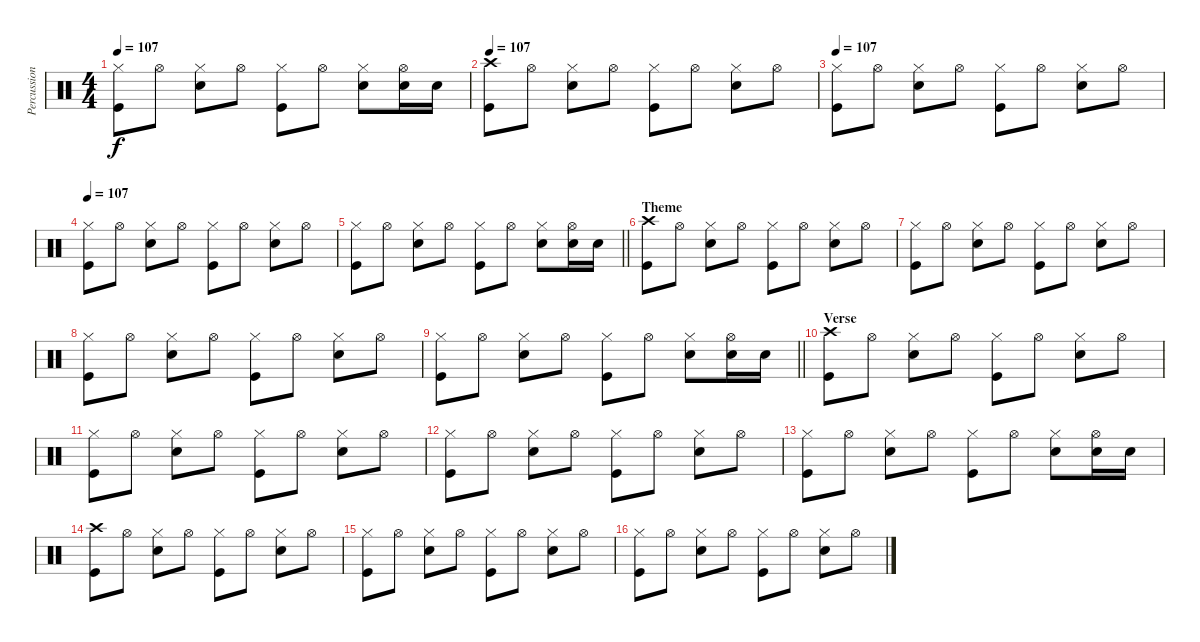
\track ("Percussion" "Percussion") {instrument percussion}
\staff {score}
\articulation defaults
\ts (4 4)
\tempo 107
\clef neutral
\ks c
("Hi-Hat (closed)" "Kick (hit)").8{dy f} "Hi-Hat (open)".8 ("Hi-Hat (closed)" "Snare (hit) 2").8 "Hi-Hat (open)".8 ("Hi-Hat (closed)" "Kick (hit)").8 "Hi-Hat (open)".8 ("Hi-Hat (closed)" "Snare (hit) 2").8 ("Hi-Hat (open)" "Snare (hit) 2").16 "Snare (hit) 2".16 |
\tempo 107
("Crash high (hit)" "Kick (hit)").8 "Hi-Hat (open)".8 ("Hi-Hat (closed)" "Snare (hit) 2").8 "Hi-Hat (open)".8 ("Hi-Hat (closed)" "Kick (hit)").8 "Hi-Hat (open)".8 ("Hi-Hat (closed)" "Snare (hit) 2").8 "Hi-Hat (open)".8 |
\tempo 107
("Hi-Hat (closed)" "Kick (hit)").8 "Hi-Hat (open)".8 ("Hi-Hat (closed)" "Snare (hit) 2").8 "Hi-Hat (open)".8 ("Hi-Hat (closed)" "Kick (hit)").8 "Hi-Hat (open)".8 ("Hi-Hat (closed)" "Snare (hit) 2").8 "Hi-Hat (open)".8 |
\tempo 107
("Hi-Hat (closed)" "Kick (hit)").8 "Hi-Hat (open)".8 ("Hi-Hat (closed)" "Snare (hit) 2").8 "Hi-Hat (open)".8 ("Hi-Hat (closed)" "Kick (hit)").8 "Hi-Hat (open)".8 ("Hi-Hat (closed)" "Snare (hit) 2").8 "Hi-Hat (open)".8 |
\barLineRight lightlight
("Hi-Hat (closed)" "Kick (hit)").8 "Hi-Hat (open)".8 ("Hi-Hat (closed)" "Snare (hit) 2").8 "Hi-Hat (open)".8 ("Hi-Hat (closed)" "Kick (hit)").8 "Hi-Hat (open)".8 ("Hi-Hat (closed)" "Snare (hit) 2").8 ("Hi-Hat (open)" "Snare (hit) 2").16 "Snare (hit) 2".16 |
\section ("" "Theme")
("Crash high (hit)" "Kick (hit)").8 "Hi-Hat (open)".8 ("Hi-Hat (closed)" "Snare (hit) 2").8 "Hi-Hat (open)".8 ("Hi-Hat (closed)" "Kick (hit)").8 "Hi-Hat (open)".8 ("Hi-Hat (closed)" "Snare (hit) 2").8 "Hi-Hat (open)".8 |
("Hi-Hat (closed)" "Kick (hit)").8 "Hi-Hat (open)".8 ("Hi-Hat (closed)" "Snare (hit) 2").8 "Hi-Hat (open)".8 ("Hi-Hat (closed)" "Kick (hit)").8 "Hi-Hat (open)".8 ("Hi-Hat (closed)" "Snare (hit) 2").8 "Hi-Hat (open)".8 |
("Hi-Hat (closed)" "Kick (hit)").8 "Hi-Hat (open)".8 ("Hi-Hat (closed)" "Snare (hit) 2").8 "Hi-Hat (open)".8 ("Hi-Hat (closed)" "Kick (hit)").8 "Hi-Hat (open)".8 ("Hi-Hat (closed)" "Snare (hit) 2").8 "Hi-Hat (open)".8 |
\barLineRight lightlight
("Hi-Hat (closed)" "Kick (hit)").8 "Hi-Hat (open)".8 ("Hi-Hat (closed)" "Snare (hit) 2").8 "Hi-Hat (open)".8 ("Hi-Hat (closed)" "Kick (hit)").8 "Hi-Hat (open)".8 ("Hi-Hat (closed)" "Snare (hit) 2").8 ("Hi-Hat (open)" "Snare (hit) 2").16 "Snare (hit) 2".16 |
\section ("" "Verse")
("Crash high (hit)" "Kick (hit)").8 "Hi-Hat (open)".8 ("Hi-Hat (closed)" "Snare (hit) 2").8 "Hi-Hat (open)".8 ("Hi-Hat (closed)" "Kick (hit)").8 "Hi-Hat (open)".8 ("Hi-Hat (closed)" "Snare (hit) 2").8 "Hi-Hat (open)".8 |
("Hi-Hat (closed)" "Kick (hit)").8 "Hi-Hat (open)".8 ("Hi-Hat (closed)" "Snare (hit) 2").8 "Hi-Hat (open)".8 ("Hi-Hat (closed)" "Kick (hit)").8 "Hi-Hat (open)".8 ("Hi-Hat (closed)" "Snare (hit) 2").8 "Hi-Hat (open)".8 |
("Hi-Hat (closed)" "Kick (hit)").8 "Hi-Hat (open)".8 ("Hi-Hat (closed)" "Snare (hit) 2").8 "Hi-Hat (open)".8 ("Hi-Hat (closed)" "Kick (hit)").8 "Hi-Hat (open)".8 ("Hi-Hat (closed)" "Snare (hit) 2").8 "Hi-Hat (open)".8 |
("Hi-Hat (closed)" "Kick (hit)").8 "Hi-Hat (open)".8 ("Hi-Hat (closed)" "Snare (hit) 2").8 "Hi-Hat (open)".8 ("Hi-Hat (closed)" "Kick (hit)").8 "Hi-Hat (open)".8 ("Hi-Hat (closed)" "Snare (hit) 2").8 ("Hi-Hat (open)" "Snare (hit) 2").16 "Snare (hit) 2".16 |
("Crash high (hit)" "Kick (hit)").8 "Hi-Hat (open)".8 ("Hi-Hat (closed)" "Snare (hit) 2").8 "Hi-Hat (open)".8 ("Hi-Hat (closed)" "Kick (hit)").8 "Hi-Hat (open)".8 ("Hi-Hat (closed)" "Snare (hit) 2").8 "Hi-Hat (open)".8 |
("Hi-Hat (closed)" "Kick (hit)").8 "Hi-Hat (open)".8 ("Hi-Hat (closed)" "Snare (hit) 2").8 "Hi-Hat (open)".8 ("Hi-Hat (closed)" "Kick (hit)").8 "Hi-Hat (open)".8 ("Hi-Hat (closed)" "Snare (hit) 2").8 "Hi-Hat (open)".8 |
("Hi-Hat (closed)" "Kick (hit)").8 "Hi-Hat (open)".8 ("Hi-Hat (closed)" "Snare (hit) 2").8 "Hi-Hat (open)".8 ("Hi-Hat (closed)" "Kick (hit)").8 "Hi-Hat (open)".8 ("Hi-Hat (closed)" "Snare (hit) 2").8 "Hi-Hat (open)".8
